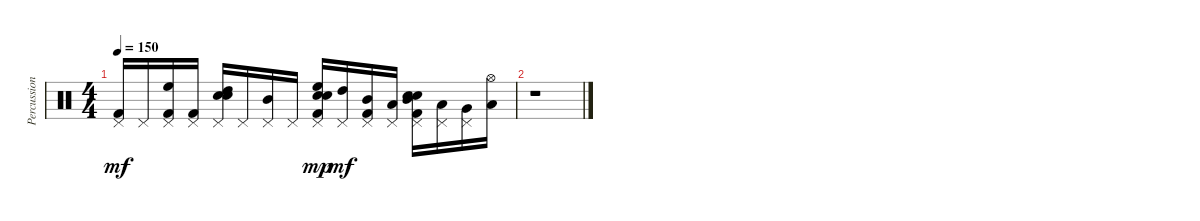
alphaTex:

\track ("Percussion (Power Kit)" "Percussion") {instrument percussion}
\staff {score}
\articulation defaults
\ts (4 4)
\tempo 150
\clef neutral
\ks c
("Kick (hit) 2" "Pedal Hi-Hat (hit)").16{dy mf} "Pedal Hi-Hat (hit)".16 ("Pedal Hi-Hat (hit)" "High Floor Tom (hit)" "Kick (hit) 2").16 ("Pedal Hi-Hat (hit)" "Kick (hit) 2").16 ("Electric Snare (hit)" "Snare (hit) 2" "Pedal Hi-Hat (hit)" "High Tom (hit)").16 "Pedal Hi-Hat (hit)".16 ("Pedal Hi-Hat (hit)" "Mid Tom (hit)").16 "Pedal Hi-Hat (hit)".16 ("Kick (hit) 2" "Pedal Hi-Hat (hit)" "High Floor Tom (hit)" "Electric Snare (hit)" "Snare (hit) 2").16{dy mp volume 1} ("Pedal Hi-Hat (hit)" "High Tom (hit)").16{dy mf} ("Pedal Hi-Hat (hit)" "Mid Tom (hit)" "Kick (hit) 2").16 ("Pedal Hi-Hat (hit)" "Low Tom (hit)").16 ("Electric Snare (hit)" "Snare (hit) 2" "Pedal Hi-Hat (hit)" "Mid Tom (hit)" "Kick (hit) 2").16 ("Pedal Hi-Hat (hit)" "Low Tom (hit)").16 ("Pedal Hi-Hat (hit)" "Very Low Tom (hit)").16 ("Hi-Hat (open)" "Low Floor Tom (hit)").16 |
r.1
